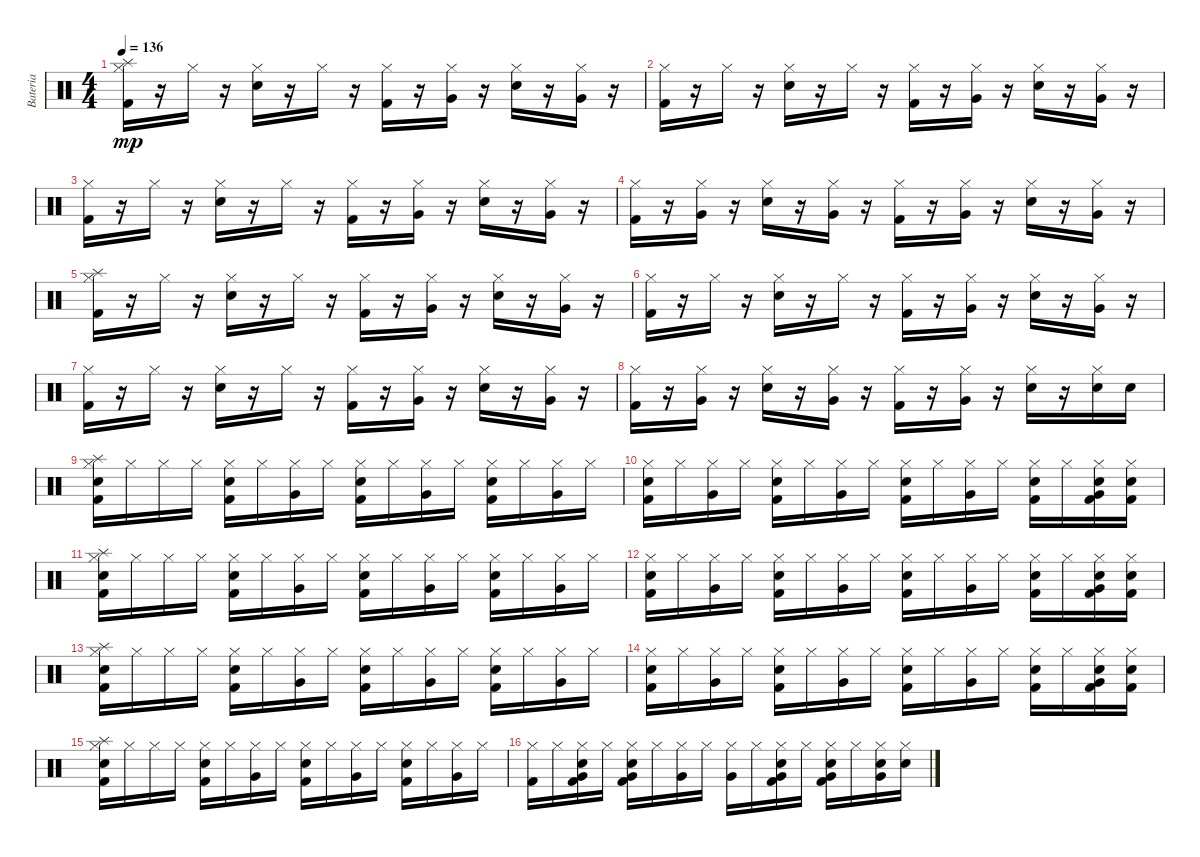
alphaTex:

\track ("Bateria" "Bateria") {instrument percussion}
\staff {score}
\articulation defaults
\ts (4 4)
\tempo 136
\clef neutral
\ks c
("Kick (hit) 2" "Hi-Hat (closed)" "Splash (hit)").16{dy mp} r.16 "Hi-Hat (closed)".16 r.16 ("Snare (hit) 2" "Hi-Hat (closed)").16 r.16 "Hi-Hat (closed)".16 r.16 ("Kick (hit) 2" "Hi-Hat (closed)").16 r.16 ("Hi-Hat (closed)" "Very Low Tom (hit)").16 r.16 ("Snare (hit) 2" "Hi-Hat (closed)").16 r.16 ("Hi-Hat (closed)" "Very Low Tom (hit)").16 r.16 |
("Kick (hit) 2" "Hi-Hat (closed)").16 r.16 "Hi-Hat (closed)".16 r.16 ("Snare (hit) 2" "Hi-Hat (closed)").16 r.16 "Hi-Hat (closed)".16 r.16 ("Kick (hit) 2" "Hi-Hat (closed)").16 r.16 ("Hi-Hat (closed)" "Very Low Tom (hit)").16 r.16 ("Snare (hit) 2" "Hi-Hat (closed)").16 r.16 ("Hi-Hat (closed)" "Very Low Tom (hit)").16 r.16 |
("Kick (hit) 2" "Hi-Hat (closed)").16 r.16 "Hi-Hat (closed)".16 r.16 ("Snare (hit) 2" "Hi-Hat (closed)").16 r.16 "Hi-Hat (closed)".16 r.16 ("Kick (hit) 2" "Hi-Hat (closed)").16 r.16 ("Hi-Hat (closed)" "Very Low Tom (hit)").16 r.16 ("Snare (hit) 2" "Hi-Hat (closed)").16 r.16 ("Hi-Hat (closed)" "Very Low Tom (hit)").16 r.16 |
("Kick (hit) 2" "Hi-Hat (closed)").16 r.16 ("Hi-Hat (closed)" "Very Low Tom (hit)").16 r.16 ("Snare (hit) 2" "Hi-Hat (closed)").16 r.16 ("Hi-Hat (closed)" "Very Low Tom (hit)").16 r.16 ("Kick (hit) 2" "Hi-Hat (closed)").16 r.16 ("Hi-Hat (closed)" "Very Low Tom (hit)").16 r.16 ("Snare (hit) 2" "Hi-Hat (closed)").16 r.16 ("Hi-Hat (closed)" "Very Low Tom (hit)").16 r.16 |
("Kick (hit) 2" "Hi-Hat (closed)" "Splash (hit)").16 r.16 "Hi-Hat (closed)".16 r.16 ("Snare (hit) 2" "Hi-Hat (closed)").16 r.16 "Hi-Hat (closed)".16 r.16 ("Kick (hit) 2" "Hi-Hat (closed)").16 r.16 ("Hi-Hat (closed)" "Very Low Tom (hit)").16 r.16 ("Snare (hit) 2" "Hi-Hat (closed)").16 r.16 ("Hi-Hat (closed)" "Very Low Tom (hit)").16 r.16 |
("Kick (hit) 2" "Hi-Hat (closed)").16 r.16 "Hi-Hat (closed)".16 r.16 ("Snare (hit) 2" "Hi-Hat (closed)").16 r.16 "Hi-Hat (closed)".16 r.16 ("Kick (hit) 2" "Hi-Hat (closed)").16 r.16 ("Hi-Hat (closed)" "Very Low Tom (hit)").16 r.16 ("Snare (hit) 2" "Hi-Hat (closed)").16 r.16 ("Hi-Hat (closed)" "Very Low Tom (hit)").16 r.16 |
("Kick (hit) 2" "Hi-Hat (closed)").16 r.16 "Hi-Hat (closed)".16 r.16 ("Snare (hit) 2" "Hi-Hat (closed)").16 r.16 "Hi-Hat (closed)".16 r.16 ("Kick (hit) 2" "Hi-Hat (closed)").16 r.16 ("Hi-Hat (closed)" "Very Low Tom (hit)").16 r.16 ("Snare (hit) 2" "Hi-Hat (closed)").16 r.16 ("Hi-Hat (closed)" "Very Low Tom (hit)").16 r.16 |
("Kick (hit) 2" "Hi-Hat (closed)").16 r.16 ("Hi-Hat (closed)" "Very Low Tom (hit)").16 r.16 ("Snare (hit) 2" "Hi-Hat (closed)").16 r.16 ("Hi-Hat (closed)" "Very Low Tom (hit)").16 r.16 ("Kick (hit) 2" "Hi-Hat (closed)").16 r.16 ("Hi-Hat (closed)" "Very Low Tom (hit)").16 r.16 ("Snare (hit) 2" "Hi-Hat (closed)").16 r.16 ("Snare (hit) 2" "Hi-Hat (closed)").16 "Snare (hit) 2".16 |
("Hi-Hat (closed)" "Splash (hit)" "Kick (hit) 2" "Snare (hit) 2").16 "Hi-Hat (closed)".16 "Hi-Hat (closed)".16 "Hi-Hat (closed)".16 ("Hi-Hat (closed)" "Kick (hit) 2" "Snare (hit) 2").16 "Hi-Hat (closed)".16 ("Hi-Hat (closed)" "Very Low Tom (hit)").16 "Hi-Hat (closed)".16 ("Hi-Hat (closed)" "Kick (hit) 2" "Snare (hit) 2").16 "Hi-Hat (closed)".16 ("Hi-Hat (closed)" "Very Low Tom (hit)").16 "Hi-Hat (closed)".16 ("Hi-Hat (closed)" "Kick (hit) 2" "Snare (hit) 2").16 "Hi-Hat (closed)".16 ("Hi-Hat (closed)" "Very Low Tom (hit)").16 "Hi-Hat (closed)".16 |
("Hi-Hat (closed)" "Kick (hit) 2" "Snare (hit) 2").16 "Hi-Hat (closed)".16 ("Hi-Hat (closed)" "Very Low Tom (hit)").16 "Hi-Hat (closed)".16 ("Hi-Hat (closed)" "Kick (hit) 2" "Snare (hit) 2").16 "Hi-Hat (closed)".16 ("Hi-Hat (closed)" "Very Low Tom (hit)").16 "Hi-Hat (closed)".16 ("Hi-Hat (closed)" "Kick (hit) 2" "Snare (hit) 2").16 "Hi-Hat (closed)".16 ("Hi-Hat (closed)" "Very Low Tom (hit)").16 "Hi-Hat (closed)".16 ("Hi-Hat (closed)" "Kick (hit) 2" "Snare (hit) 2").16 "Hi-Hat (closed)".16 ("Hi-Hat (closed)" "Snare (hit) 2" "Kick (hit) 2" "Very Low Tom (hit)").16 ("Hi-Hat (closed)" "Snare (hit) 2" "Kick (hit) 2").16 |
("Hi-Hat (closed)" "Snare (hit) 2" "Kick (hit) 2" "Splash (hit)").16 "Hi-Hat (closed)".16 "Hi-Hat (closed)".16 "Hi-Hat (closed)".16 ("Hi-Hat (closed)" "Kick (hit) 2" "Snare (hit) 2").16 "Hi-Hat (closed)".16 ("Hi-Hat (closed)" "Very Low Tom (hit)").16 "Hi-Hat (closed)".16 ("Hi-Hat (closed)" "Kick (hit) 2" "Snare (hit) 2").16 "Hi-Hat (closed)".16 ("Hi-Hat (closed)" "Very Low Tom (hit)").16 "Hi-Hat (closed)".16 ("Hi-Hat (closed)" "Kick (hit) 2" "Snare (hit) 2").16 "Hi-Hat (closed)".16 ("Hi-Hat (closed)" "Very Low Tom (hit)").16 "Hi-Hat (closed)".16 |
("Hi-Hat (closed)" "Kick (hit) 2" "Snare (hit) 2").16 "Hi-Hat (closed)".16 ("Hi-Hat (closed)" "Very Low Tom (hit)").16 "Hi-Hat (closed)".16 ("Hi-Hat (closed)" "Kick (hit) 2" "Snare (hit) 2").16 "Hi-Hat (closed)".16 ("Hi-Hat (closed)" "Very Low Tom (hit)").16 "Hi-Hat (closed)".16 ("Hi-Hat (closed)" "Kick (hit) 2" "Snare (hit) 2").16 "Hi-Hat (closed)".16 ("Hi-Hat (closed)" "Very Low Tom (hit)").16 "Hi-Hat (closed)".16 ("Hi-Hat (closed)" "Kick (hit) 2" "Snare (hit) 2").16 "Hi-Hat (closed)".16 ("Hi-Hat (closed)" "Snare (hit) 2" "Kick (hit) 2" "Very Low Tom (hit)").16 ("Hi-Hat (closed)" "Snare (hit) 2" "Kick (hit) 2").16 |
("Hi-Hat (closed)" "Splash (hit)" "Kick (hit) 2" "Snare (hit) 2").16 "Hi-Hat (closed)".16 "Hi-Hat (closed)".16 "Hi-Hat (closed)".16 ("Hi-Hat (closed)" "Kick (hit) 2" "Snare (hit) 2").16 "Hi-Hat (closed)".16 ("Hi-Hat (closed)" "Very Low Tom (hit)").16 "Hi-Hat (closed)".16 ("Hi-Hat (closed)" "Kick (hit) 2" "Snare (hit) 2").16 "Hi-Hat (closed)".16 ("Hi-Hat (closed)" "Very Low Tom (hit)").16 "Hi-Hat (closed)".16 ("Hi-Hat (closed)" "Kick (hit) 2" "Snare (hit) 2").16 "Hi-Hat (closed)".16 ("Hi-Hat (closed)" "Very Low Tom (hit)").16 "Hi-Hat (closed)".16 |
("Hi-Hat (closed)" "Kick (hit) 2" "Snare (hit) 2").16 "Hi-Hat (closed)".16 ("Hi-Hat (closed)" "Very Low Tom (hit)").16 "Hi-Hat (closed)".16 ("Hi-Hat (closed)" "Kick (hit) 2" "Snare (hit) 2").16 "Hi-Hat (closed)".16 ("Hi-Hat (closed)" "Very Low Tom (hit)").16 "Hi-Hat (closed)".16 ("Hi-Hat (closed)" "Kick (hit) 2" "Snare (hit) 2").16 "Hi-Hat (closed)".16 ("Hi-Hat (closed)" "Very Low Tom (hit)").16 "Hi-Hat (closed)".16 ("Hi-Hat (closed)" "Kick (hit) 2" "Snare (hit) 2").16 "Hi-Hat (closed)".16 ("Hi-Hat (closed)" "Snare (hit) 2" "Kick (hit) 2" "Very Low Tom (hit)").16 ("Hi-Hat (closed)" "Snare (hit) 2" "Kick (hit) 2").16 |
("Hi-Hat (closed)" "Snare (hit) 2" "Kick (hit) 2" "Splash (hit)").16 "Hi-Hat (closed)".16 "Hi-Hat (closed)".16 "Hi-Hat (closed)".16 ("Hi-Hat (closed)" "Kick (hit) 2" "Snare (hit) 2").16 "Hi-Hat (closed)".16 ("Hi-Hat (closed)" "Very Low Tom (hit)").16 "Hi-Hat (closed)".16 ("Hi-Hat (closed)" "Kick (hit) 2" "Snare (hit) 2").16 "Hi-Hat (closed)".16 ("Hi-Hat (closed)" "Very Low Tom (hit)").16 "Hi-Hat (closed)".16 ("Hi-Hat (closed)" "Kick (hit) 2" "Snare (hit) 2").16 "Hi-Hat (closed)".16 ("Hi-Hat (closed)" "Very Low Tom (hit)").16 "Hi-Hat (closed)".16 |
("Hi-Hat (closed)" "Kick (hit) 2").16 "Hi-Hat (closed)".16 ("Hi-Hat (closed)" "Very Low Tom (hit)" "Snare (hit) 2" "Kick (hit) 2").16 "Hi-Hat (closed)".16 ("Hi-Hat (closed)" "Kick (hit) 2" "Very Low Tom (hit)" "Snare (hit) 2").16 "Hi-Hat (closed)".16 ("Hi-Hat (closed)" "Very Low Tom (hit)").16 "Hi-Hat (closed)".16 ("Hi-Hat (closed)" "Very Low Tom (hit)").16 "Hi-Hat (closed)".16 ("Hi-Hat (closed)" "Snare (hit) 2" "Kick (hit) 2" "Very Low Tom (hit)").16 "Hi-Hat (closed)".16 ("Hi-Hat (closed)" "Kick (hit) 2" "Snare (hit) 2" "Very Low Tom (hit)").16 "Hi-Hat (closed)".16 ("Hi-Hat (closed)" "Snare (hit) 2" "Very Low Tom (hit)").16 ("Hi-Hat (closed)" "Snare (hit) 2").16
